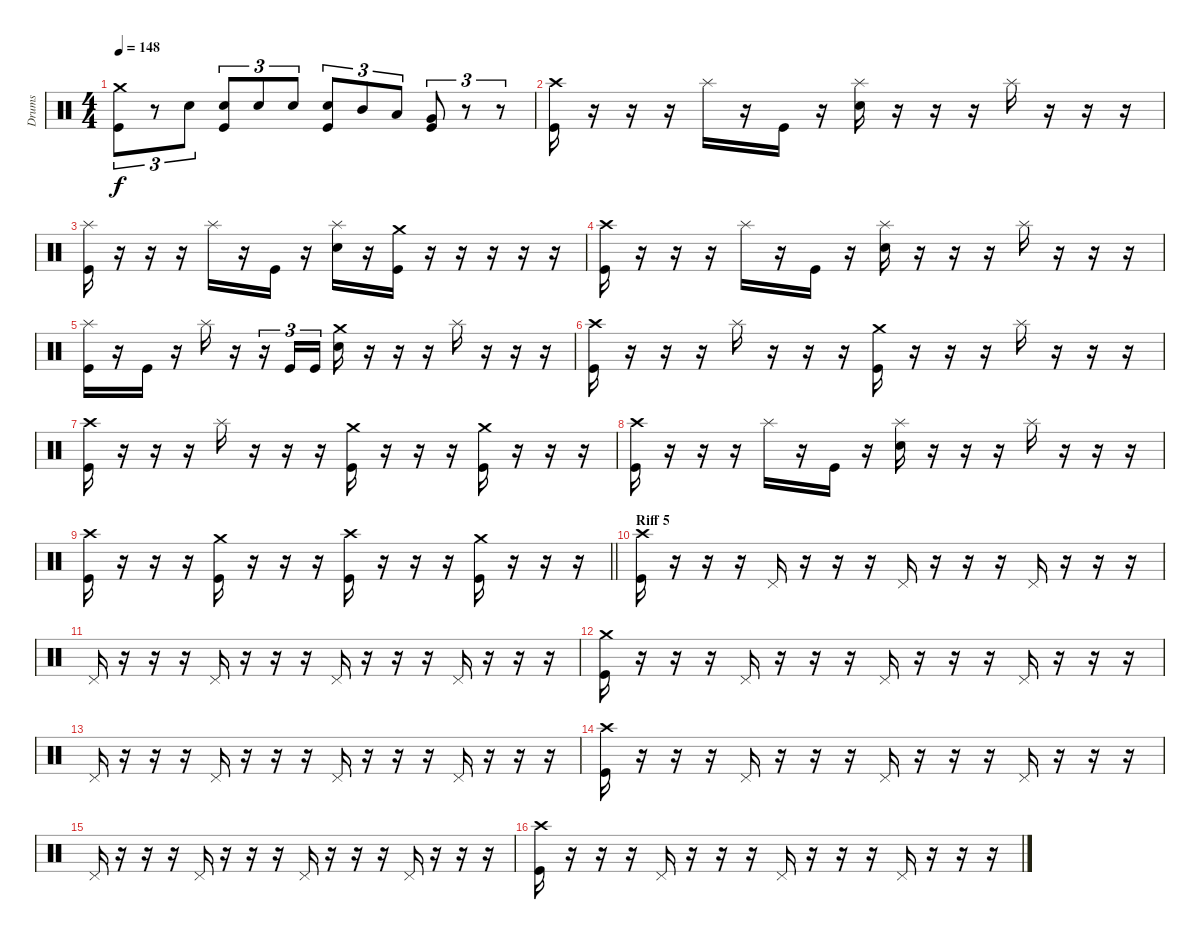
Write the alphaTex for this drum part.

\track ("Drums" "Drums") {instrument percussion}
\staff {score}
\articulation defaults
\ts (4 4)
\tempo 148
\clef neutral
\ks c
("Crash medium (hit)" "Kick (hit)").8{tu (3 2) dy f} r.8{tu (3 2)} "Electric Snare (hit)".8{tu (3 2)} ("Electric Snare (hit)" "Kick (hit)").8{tu (3 2)} "Electric Snare (hit)".8{tu (3 2)} "Electric Snare (hit)".8{tu (3 2)} ("Electric Snare (hit)" "Kick (hit)").8{tu (3 2)} "Mid Tom (hit)".8{tu (3 2)} "Low Tom (hit)".8{tu (3 2)} ("Very Low Tom (hit)" "Kick (hit)").8{tu (3 2)} r.8{tu (3 2)} r.8{tu (3 2)} |
("Crash high (hit)" "Kick (hit)").16 r.16 r.16 r.16 "Splash (hit)".16 r.16 "Kick (hit)".16 r.16 ("Splash (hit)" "Electric Snare (hit)").16 r.16 r.16 r.16 "Splash (hit)".16 r.16 r.16 r.16 |
("Splash (hit)" "Kick (hit)").16 r.16 r.16 r.16 "Splash (hit)".16 r.16 "Kick (hit)".16 r.16 ("Splash (hit)" "Electric Snare (hit)").16 r.16 ("Crash medium (hit)" "Kick (hit)").16 r.16 r.16 r.16 r.16 r.16 |
("Crash high (hit)" "Kick (hit)").16 r.16 r.16 r.16 "Splash (hit)".16 r.16 "Kick (hit)".16 r.16 ("Splash (hit)" "Electric Snare (hit)").16 r.16 r.16 r.16 "Splash (hit)".16 r.16 r.16 r.16 |
("Splash (hit)" "Kick (hit)").16 r.16 "Kick (hit)".16 r.16 "Splash (hit)".16 r.16 r.16{tu (3 2)} "Kick (hit)".16{tu (3 2)} "Kick (hit)".16{tu (3 2)} ("Crash medium (hit)" "Electric Snare (hit)").16 r.16 r.16 r.16 "Splash (hit)".16 r.16 r.16 r.16 |
("Crash high (hit)" "Kick (hit)").16 r.16 r.16 r.16 "Splash (hit)".16 r.16 r.16 r.16 ("Crash medium (hit)" "Kick (hit)").16 r.16 r.16 r.16 "Splash (hit)".16 r.16 r.16 r.16 |
("Crash high (hit)" "Kick (hit)").16 r.16 r.16 r.16 "Splash (hit)".16 r.16 r.16 r.16 ("Crash medium (hit)" "Kick (hit)").16 r.16 r.16 r.16 ("Crash medium (hit)" "Kick (hit)").16 r.16 r.16 r.16 |
("Crash high (hit)" "Kick (hit)").16 r.16 r.16 r.16 "Splash (hit)".16 r.16 "Kick (hit)".16 r.16 ("Splash (hit)" "Electric Snare (hit)").16 r.16 r.16 r.16 "Splash (hit)".16 r.16 r.16 r.16 |
\barLineRight lightlight
("Crash high (hit)" "Kick (hit)").16 r.16 r.16 r.16 ("Crash medium (hit)" "Kick (hit)").16 r.16 r.16 r.16 ("Crash high (hit)" "Kick (hit)").16 r.16 r.16 r.16 ("Crash medium (hit)" "Kick (hit)").16 r.16 r.16 r.16 |
\section ("" "Riff 5")
("Crash high (hit)" "Kick (hit)").16 r.16 r.16 r.16 "Pedal Hi-Hat (hit)".16 r.16 r.16 r.16 "Pedal Hi-Hat (hit)".16 r.16 r.16 r.16 "Pedal Hi-Hat (hit)".16 r.16 r.16 r.16 |
"Pedal Hi-Hat (hit)".16 r.16 r.16 r.16 "Pedal Hi-Hat (hit)".16 r.16 r.16 r.16 "Pedal Hi-Hat (hit)".16 r.16 r.16 r.16 "Pedal Hi-Hat (hit)".16 r.16 r.16 r.16 |
("Crash medium (hit)" "Kick (hit)").16 r.16 r.16 r.16 "Pedal Hi-Hat (hit)".16 r.16 r.16 r.16 "Pedal Hi-Hat (hit)".16 r.16 r.16 r.16 "Pedal Hi-Hat (hit)".16 r.16 r.16 r.16 |
"Pedal Hi-Hat (hit)".16 r.16 r.16 r.16 "Pedal Hi-Hat (hit)".16 r.16 r.16 r.16 "Pedal Hi-Hat (hit)".16 r.16 r.16 r.16 "Pedal Hi-Hat (hit)".16 r.16 r.16 r.16 |
("Crash high (hit)" "Kick (hit)").16 r.16 r.16 r.16 "Pedal Hi-Hat (hit)".16 r.16 r.16 r.16 "Pedal Hi-Hat (hit)".16 r.16 r.16 r.16 "Pedal Hi-Hat (hit)".16 r.16 r.16 r.16 |
"Pedal Hi-Hat (hit)".16 r.16 r.16 r.16 "Pedal Hi-Hat (hit)".16 r.16 r.16 r.16 "Pedal Hi-Hat (hit)".16 r.16 r.16 r.16 "Pedal Hi-Hat (hit)".16 r.16 r.16 r.16 |
("Crash high (hit)" "Kick (hit)").16 r.16 r.16 r.16 "Pedal Hi-Hat (hit)".16 r.16 r.16 r.16 "Pedal Hi-Hat (hit)".16 r.16 r.16 r.16 "Pedal Hi-Hat (hit)".16 r.16 r.16 r.16
